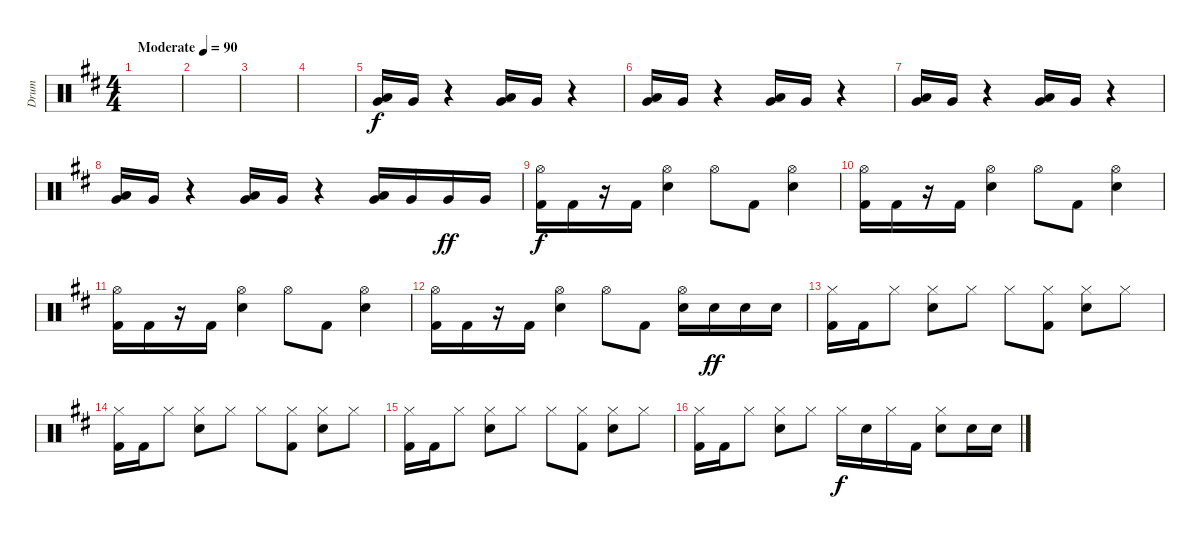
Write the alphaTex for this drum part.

\track ("Drum" "Drum") {instrument percussion}
\staff {score}
\articulation defaults
\ts (4 4)
\tempo (90 "Moderate")
\clef neutral
\ks d
|
|
|
|
("Very Low Tom (hit)" "Low Floor Tom (hit)").16{bd 480} "Very Low Tom (hit)".16 r.4 ("Very Low Tom (hit)" "Low Floor Tom (hit)").16{bd 480} "Very Low Tom (hit)".16 r.4 |
("Very Low Tom (hit)" "Low Floor Tom (hit)").16{bd 480} "Very Low Tom (hit)".16 r.4 ("Very Low Tom (hit)" "Low Floor Tom (hit)").16{bd 480} "Very Low Tom (hit)".16 r.4 |
("Very Low Tom (hit)" "Low Floor Tom (hit)").16{bd 480} "Very Low Tom (hit)".16 r.4 ("Very Low Tom (hit)" "Low Floor Tom (hit)").16{bd 480} "Very Low Tom (hit)".16 r.4 |
("Very Low Tom (hit)" "Low Floor Tom (hit)").16{bd 480} "Very Low Tom (hit)".16 r.4 ("Very Low Tom (hit)" "Low Floor Tom (hit)").16{bd 480} "Very Low Tom (hit)".16 r.4 ("Very Low Tom (hit)" "Low Floor Tom (hit)").16{bd 480} "Very Low Tom (hit)".16 "Very Low Tom (hit)".16{dy ff} "Very Low Tom (hit)".16 |
("Kick (hit) 2" "Hi-Hat (open)").16{dy f} "Kick (hit) 2".16 r.16 "Kick (hit) 2".16 ("Hi-Hat (open)" "Snare (hit) 2").4 "Hi-Hat (open)".8 "Kick (hit) 2".8 ("Hi-Hat (open)" "Snare (hit) 2").4 |
("Kick (hit) 2" "Hi-Hat (open)").16 "Kick (hit) 2".16 r.16 "Kick (hit) 2".16 ("Hi-Hat (open)" "Snare (hit) 2").4 "Hi-Hat (open)".8 "Kick (hit) 2".8 ("Hi-Hat (open)" "Snare (hit) 2").4 |
("Kick (hit) 2" "Hi-Hat (open)").16 "Kick (hit) 2".16 r.16 "Kick (hit) 2".16 ("Hi-Hat (open)" "Snare (hit) 2").4 "Hi-Hat (open)".8 "Kick (hit) 2".8 ("Hi-Hat (open)" "Snare (hit) 2").4 |
("Kick (hit) 2" "Hi-Hat (open)").16 "Kick (hit) 2".16 r.16 "Kick (hit) 2".16 ("Hi-Hat (open)" "Snare (hit) 2").4 "Hi-Hat (open)".8 "Kick (hit) 2".8 ("Hi-Hat (open)" "Snare (hit) 2").16 "Snare (hit) 2".16{dy ff} "Snare (hit) 2".16 "Snare (hit) 2".16 |
("Kick (hit) 2" "Hi-Hat (closed)").16 "Kick (hit) 2".16 "Hi-Hat (closed)".8 ("Snare (hit) 2" "Hi-Hat (closed)").8 "Hi-Hat (closed)".8 "Hi-Hat (closed)".8 ("Kick (hit) 2" "Hi-Hat (closed)").8 ("Hi-Hat (closed)" "Snare (hit) 2").8 "Hi-Hat (closed)".8 |
("Kick (hit) 2" "Hi-Hat (closed)").16 "Kick (hit) 2".16 "Hi-Hat (closed)".8 ("Snare (hit) 2" "Hi-Hat (closed)").8 "Hi-Hat (closed)".8 "Hi-Hat (closed)".8 ("Kick (hit) 2" "Hi-Hat (closed)").8 ("Hi-Hat (closed)" "Snare (hit) 2").8 "Hi-Hat (closed)".8 |
("Kick (hit) 2" "Hi-Hat (closed)").16 "Kick (hit) 2".16 "Hi-Hat (closed)".8 ("Snare (hit) 2" "Hi-Hat (closed)").8 "Hi-Hat (closed)".8 "Hi-Hat (closed)".8 ("Kick (hit) 2" "Hi-Hat (closed)").8 ("Hi-Hat (closed)" "Snare (hit) 2").8 "Hi-Hat (closed)".8 |
("Kick (hit) 2" "Hi-Hat (closed)").16 "Kick (hit) 2".16 "Hi-Hat (closed)".8 ("Snare (hit) 2" "Hi-Hat (closed)").8 "Hi-Hat (closed)".8 "Hi-Hat (closed)".16{dy f} "Snare (hit) 2".16 "Hi-Hat (closed)".16 "Kick (hit) 2".16 ("Hi-Hat (closed)" "Snare (hit) 2").8 "Snare (hit) 2".16 "Snare (hit) 2".16
